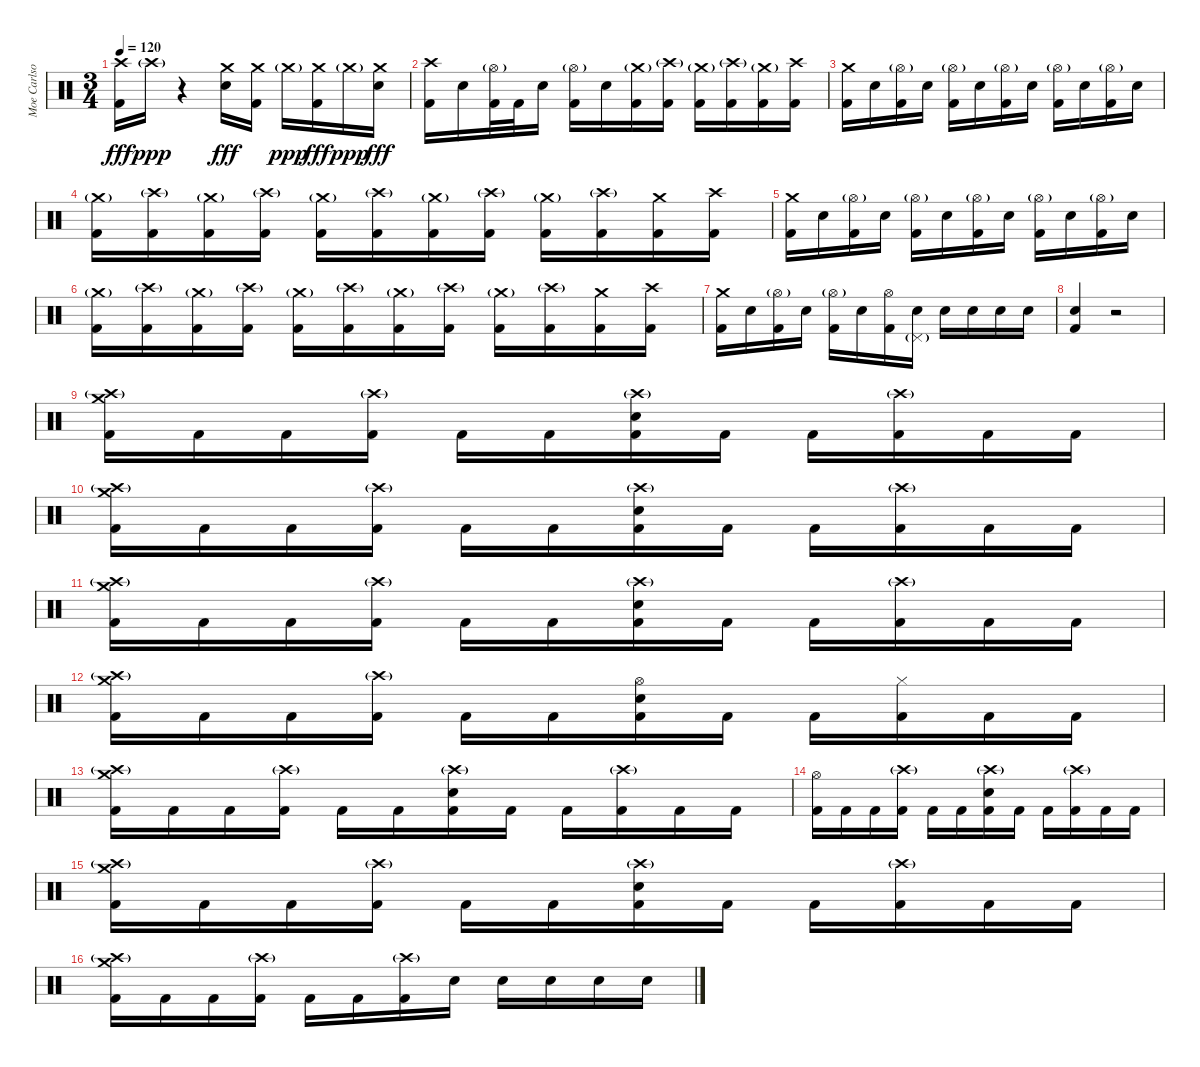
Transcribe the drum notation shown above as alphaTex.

\track ("Moe Carlson" "Moe Carlso") {instrument percussion}
\staff {score}
\articulation defaults
\ts (3 4)
\tempo 120
\clef neutral
\ks c
("Crash high (hit)" "Kick (hit) 2").16{dy fff} "Crash high (hit)"{g}.16{dy ppp} r.4 ("Crash medium (hit)" "Electric Snare (hit)").16{dy fff} ("Crash medium (hit)" "Kick (hit) 2").16 "Crash medium (hit)"{g}.16{dy ppp} ("Crash medium (hit)" "Kick (hit) 2").16{dy fff} "Crash medium (hit)"{g}.16{dy ppp} ("Crash medium (hit)" "Electric Snare (hit)").16{dy fff} |
("Crash high (hit)" "Kick (hit) 2").16 "Electric Snare (hit)".16 ("Hi-Hat (open)"{g} "Kick (hit) 2").32 "Kick (hit) 2".32 "Electric Snare (hit)".16 ("Hi-Hat (open)"{g} "Kick (hit) 2").16 "Electric Snare (hit)".16 ("Crash medium (hit)"{g} "Kick (hit) 2").16 ("Crash high (hit)"{g} "Kick (hit) 2").16 ("Crash medium (hit)"{g} "Kick (hit) 2").16 ("Crash high (hit)"{g} "Kick (hit) 2").16 ("Crash medium (hit)"{g} "Kick (hit) 2").16 ("Crash high (hit)" "Kick (hit) 2").16 |
("Crash medium (hit)" "Kick (hit) 2").16 "Electric Snare (hit)".16 ("Hi-Hat (open)"{g} "Kick (hit) 2").16 "Electric Snare (hit)".16 ("Hi-Hat (open)"{g} "Kick (hit) 2").16 "Electric Snare (hit)".16 ("Hi-Hat (open)"{g} "Kick (hit) 2").16 "Electric Snare (hit)".16 ("Hi-Hat (open)"{g} "Kick (hit) 2").16 "Electric Snare (hit)".16 ("Hi-Hat (open)"{g} "Kick (hit) 2").16 "Electric Snare (hit)".16 |
("Crash medium (hit)"{g} "Kick (hit) 2").16 ("Crash high (hit)"{g} "Kick (hit) 2").16 ("Crash medium (hit)"{g} "Kick (hit) 2").16 ("Crash high (hit)"{g} "Kick (hit) 2").16 ("Crash medium (hit)"{g} "Kick (hit) 2").16 ("Crash high (hit)"{g} "Kick (hit) 2").16 ("Crash medium (hit)"{g} "Kick (hit) 2").16 ("Crash high (hit)"{g} "Kick (hit) 2").16 ("Crash medium (hit)"{g} "Kick (hit) 2").16 ("Crash high (hit)"{g} "Kick (hit) 2").16 ("Crash medium (hit)" "Kick (hit) 2").16 ("Crash high (hit)" "Kick (hit) 2").16 |
("Crash medium (hit)" "Kick (hit) 2").16 "Electric Snare (hit)".16 ("Hi-Hat (open)"{g} "Kick (hit) 2").16 "Electric Snare (hit)".16 ("Hi-Hat (open)"{g} "Kick (hit) 2").16 "Electric Snare (hit)".16 ("Hi-Hat (open)"{g} "Kick (hit) 2").16 "Electric Snare (hit)".16 ("Hi-Hat (open)"{g} "Kick (hit) 2").16 "Electric Snare (hit)".16 ("Hi-Hat (open)"{g} "Kick (hit) 2").16 "Electric Snare (hit)".16 |
("Crash medium (hit)"{g} "Kick (hit) 2").16 ("Crash high (hit)"{g} "Kick (hit) 2").16 ("Crash medium (hit)"{g} "Kick (hit) 2").16 ("Crash high (hit)"{g} "Kick (hit) 2").16 ("Crash medium (hit)"{g} "Kick (hit) 2").16 ("Crash high (hit)"{g} "Kick (hit) 2").16 ("Crash medium (hit)"{g} "Kick (hit) 2").16 ("Crash high (hit)"{g} "Kick (hit) 2").16 ("Crash medium (hit)"{g} "Kick (hit) 2").16 ("Crash high (hit)"{g} "Kick (hit) 2").16 ("Crash medium (hit)" "Kick (hit) 2").16 ("Crash high (hit)" "Kick (hit) 2").16 |
("Crash medium (hit)" "Kick (hit) 2").16 "Electric Snare (hit)".16 ("Hi-Hat (open)"{g} "Kick (hit) 2").16 "Electric Snare (hit)".16 ("Hi-Hat (open)"{g} "Kick (hit) 2").16 "Electric Snare (hit)".16 ("Hi-Hat (open)" "Kick (hit) 2").16 ("Electric Snare (hit)" "Pedal Hi-Hat (hit)"{g}).16 "Electric Snare (hit)".16 "Electric Snare (hit)".16 "Electric Snare (hit)".16 "Electric Snare (hit)".16 |
("Electric Snare (hit)" "Kick (hit) 2").4 r.2 |
("Crash high (hit)"{g} "Crash medium (hit)" "Kick (hit) 2").16 "Kick (hit) 2".16 "Kick (hit) 2".16 ("Crash high (hit)"{g} "Kick (hit) 2").16 "Kick (hit) 2".16 "Kick (hit) 2".16 ("Crash high (hit)"{g} "Electric Snare (hit)" "Kick (hit) 2").16 "Kick (hit) 2".16 "Kick (hit) 2".16 ("Crash high (hit)"{g} "Kick (hit) 2").16 "Kick (hit) 2".16 "Kick (hit) 2".16 |
("Crash high (hit)"{g} "Crash medium (hit)" "Kick (hit) 2").16 "Kick (hit) 2".16 "Kick (hit) 2".16 ("Crash high (hit)"{g} "Kick (hit) 2").16 "Kick (hit) 2".16 "Kick (hit) 2".16 ("Crash high (hit)"{g} "Electric Snare (hit)" "Kick (hit) 2").16 "Kick (hit) 2".16 "Kick (hit) 2".16 ("Crash high (hit)"{g} "Kick (hit) 2").16 "Kick (hit) 2".16 "Kick (hit) 2".16 |
("Crash high (hit)"{g} "Crash medium (hit)" "Kick (hit) 2").16 "Kick (hit) 2".16 "Kick (hit) 2".16 ("Crash high (hit)"{g} "Kick (hit) 2").16 "Kick (hit) 2".16 "Kick (hit) 2".16 ("Crash high (hit)"{g} "Electric Snare (hit)" "Kick (hit) 2").16 "Kick (hit) 2".16 "Kick (hit) 2".16 ("Crash high (hit)"{g} "Kick (hit) 2").16 "Kick (hit) 2".16 "Kick (hit) 2".16 |
("Crash high (hit)"{g} "Crash medium (hit)" "Kick (hit) 2").16 "Kick (hit) 2".16 "Kick (hit) 2".16 ("Crash high (hit)"{g} "Kick (hit) 2").16 "Kick (hit) 2".16 "Kick (hit) 2".16 ("Hi-Hat (open)" "Electric Snare (hit)" "Kick (hit) 2").16 "Kick (hit) 2".16 "Kick (hit) 2".16 ("Hi-Hat (closed)" "Kick (hit) 2").16 "Kick (hit) 2".16 "Kick (hit) 2".16 |
("Crash high (hit)"{g} "Crash medium (hit)" "Kick (hit) 2").16 "Kick (hit) 2".16 "Kick (hit) 2".16 ("Crash high (hit)"{g} "Kick (hit) 2").16 "Kick (hit) 2".16 "Kick (hit) 2".16 ("Crash high (hit)"{g} "Electric Snare (hit)" "Kick (hit) 2").16 "Kick (hit) 2".16 "Kick (hit) 2".16 ("Crash high (hit)"{g} "Kick (hit) 2").16 "Kick (hit) 2".16 "Kick (hit) 2".16 |
("Hi-Hat (open)" "Kick (hit) 2").16 "Kick (hit) 2".16 "Kick (hit) 2".16 ("Crash high (hit)"{g} "Kick (hit) 2").16 "Kick (hit) 2".16 "Kick (hit) 2".16 ("Crash high (hit)"{g} "Electric Snare (hit)" "Kick (hit) 2").16 "Kick (hit) 2".16 "Kick (hit) 2".16 ("Crash high (hit)"{g} "Kick (hit) 2").16 "Kick (hit) 2".16 "Kick (hit) 2".16 |
("Crash high (hit)"{g} "Crash medium (hit)" "Kick (hit) 2").16 "Kick (hit) 2".16 "Kick (hit) 2".16 ("Crash high (hit)"{g} "Kick (hit) 2").16 "Kick (hit) 2".16 "Kick (hit) 2".16 ("Crash high (hit)"{g} "Electric Snare (hit)" "Kick (hit) 2").16 "Kick (hit) 2".16 "Kick (hit) 2".16 ("Crash high (hit)"{g} "Kick (hit) 2").16 "Kick (hit) 2".16 "Kick (hit) 2".16 |
("Crash high (hit)"{g} "Crash medium (hit)" "Kick (hit) 2").16 "Kick (hit) 2".16 "Kick (hit) 2".16 ("Crash high (hit)"{g} "Kick (hit) 2").16 "Kick (hit) 2".16 "Kick (hit) 2".16 ("Crash high (hit)"{g} "Kick (hit) 2").16 "Electric Snare (hit)".16 "Electric Snare (hit)".16 "Electric Snare (hit)".16 "Electric Snare (hit)".16 "Electric Snare (hit)".16
